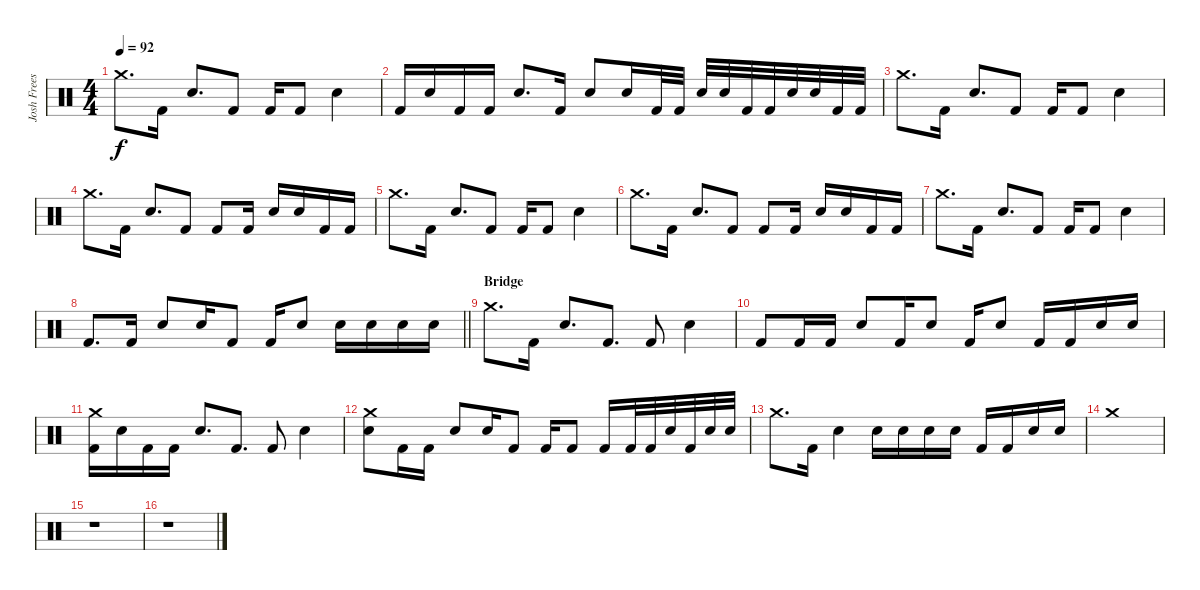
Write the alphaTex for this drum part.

\track ("Josh Freese (Studio Drummer)" "Josh Frees") {instrument percussion}
\staff {score}
\articulation defaults
\ts (4 4)
\tempo 92
\clef neutral
\ks c "Crash medium (hit)".8{d dy f} "Kick (hit) 2".16 "Electric Snare (hit)".8{d} "Kick (hit) 2".8 "Kick (hit) 2".16 "Kick (hit) 2".8 "Electric Snare (hit)".4
|
"Kick (hit) 2".16 "Electric Snare (hit)".16 "Kick (hit) 2".16 "Kick (hit) 2".16 "Electric Snare (hit)".8{d} "Kick (hit) 2".16 "Electric Snare (hit)".8 "Electric Snare (hit)".16 "Kick (hit) 2".32 "Kick (hit) 2".32 "Electric Snare (hit)".32 "Electric Snare (hit)".32 "Kick (hit) 2".32 "Kick (hit) 2".32 "Electric Snare (hit)".32 "Electric Snare (hit)".32 "Kick (hit) 2".32 "Kick (hit) 2".32 |
"Crash medium (hit)".8{d} "Kick (hit) 2".16 "Electric Snare (hit)".8{d} "Kick (hit) 2".8 "Kick (hit) 2".16 "Kick (hit) 2".8 "Electric Snare (hit)".4 |
"Crash medium (hit)".8{d} "Kick (hit) 2".16 "Electric Snare (hit)".8{d} "Kick (hit) 2".8 "Kick (hit) 2".8 "Kick (hit) 2".16 "Electric Snare (hit)".16 "Electric Snare (hit)".16 "Kick (hit) 2".16 "Kick (hit) 2".16 |
"Crash medium (hit)".8{d} "Kick (hit) 2".16 "Electric Snare (hit)".8{d} "Kick (hit) 2".8 "Kick (hit) 2".16 "Kick (hit) 2".8 "Electric Snare (hit)".4 |
"Crash medium (hit)".8{d} "Kick (hit) 2".16 "Electric Snare (hit)".8{d} "Kick (hit) 2".8 "Kick (hit) 2".8 "Kick (hit) 2".16 "Electric Snare (hit)".16 "Electric Snare (hit)".16 "Kick (hit) 2".16 "Kick (hit) 2".16 |
"Crash medium (hit)".8{d} "Kick (hit) 2".16 "Electric Snare (hit)".8{d} "Kick (hit) 2".8 "Kick (hit) 2".16 "Kick (hit) 2".8 "Electric Snare (hit)".4 |
\barLineRight lightlight "Kick (hit) 2".8{d} "Kick (hit) 2".16 "Electric Snare (hit)".8 "Electric Snare (hit)".16 "Kick (hit) 2".8 "Kick (hit) 2".16 "Electric Snare (hit)".8 "Electric Snare (hit)".16 "Electric Snare (hit)".16 "Electric Snare (hit)".16 "Electric Snare (hit)".16
|
\section ("" "Bridge")
"Crash medium (hit)".8{d} "Kick (hit) 2".16 "Electric Snare (hit)".8{d} "Kick (hit) 2".8{d} "Kick (hit) 2".8 "Electric Snare (hit)".4 |
"Kick (hit) 2".8 "Kick (hit) 2".16 "Kick (hit) 2".16 "Electric Snare (hit)".8 "Kick (hit) 2".16 "Electric Snare (hit)".8 "Kick (hit) 2".16 "Electric Snare (hit)".8 "Kick (hit) 2".16 "Kick (hit) 2".16 "Electric Snare (hit)".16 "Electric Snare (hit)".16 |
("Crash medium (hit)" "Kick (hit) 2").16 "Electric Snare (hit)".16 "Kick (hit) 2".16 "Kick (hit) 2".16 "Electric Snare (hit)".8{d} "Kick (hit) 2".8{d} "Kick (hit) 2".8 "Electric Snare (hit)".4 |
("Crash medium (hit)" "Electric Snare (hit)").8 "Kick (hit) 2".16 "Kick (hit) 2".16 "Electric Snare (hit)".8 "Electric Snare (hit)".16 "Kick (hit) 2".8 "Kick (hit) 2".16 "Kick (hit) 2".8 "Kick (hit) 2".16 "Kick (hit) 2".32 "Kick (hit) 2".32 "Electric Snare (hit)".32 "Kick (hit) 2".32 "Electric Snare (hit)".32 "Electric Snare (hit)".32 |
"Crash medium (hit)".8{d} "Kick (hit) 2".16 "Electric Snare (hit)".4 "Electric Snare (hit)".16 "Electric Snare (hit)".16 "Electric Snare (hit)".16 "Electric Snare (hit)".16 "Kick (hit) 2".16 "Kick (hit) 2".16 "Electric Snare (hit)".16 "Electric Snare (hit)".16 |
"Crash medium (hit)".1 |
r.1 |
r.1
